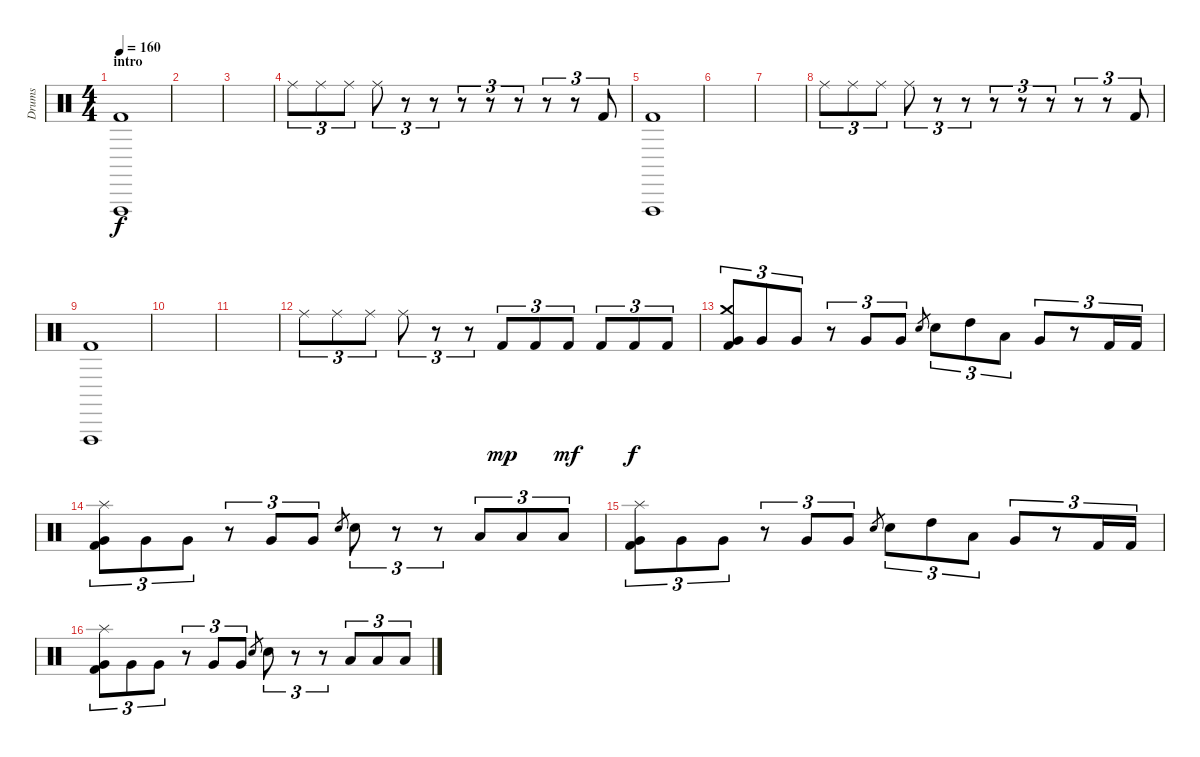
\track ("Drums" "Drums") {instrument percussion}
\staff {score}
\articulation defaults
\ts (4 4)
\section ("" "intro")
\tempo 160
\clef neutral
\ks c
("Vibraslap (hit)" "Kick (hit) 2").1{dy f} |
|
|
"Ride (middle)".8{tu (3 2)} "Ride (middle)".8{tu (3 2)} "Ride (middle)".8{tu (3 2)} "Ride (middle)".8{tu (3 2)} r.8{tu (3 2)} r.8{tu (3 2)} r.8{tu (3 2)} r.8{tu (3 2)} r.8{tu (3 2)} r.8{tu (3 2)} r.8{tu (3 2)} "Kick (hit) 2".8{tu (3 2)} |
("Vibraslap (hit)" "Kick (hit) 2").1 |
|
|
"Ride (middle)".8{tu (3 2)} "Ride (middle)".8{tu (3 2)} "Ride (middle)".8{tu (3 2)} "Ride (middle)".8{tu (3 2)} r.8{tu (3 2)} r.8{tu (3 2)} r.8{tu (3 2)} r.8{tu (3 2)} r.8{tu (3 2)} r.8{tu (3 2)} r.8{tu (3 2)} "Kick (hit) 2".8{tu (3 2)} |
("Vibraslap (hit)" "Kick (hit) 2").1 |
|
|
"Ride (middle)".8{tu (3 2)} "Ride (middle)".8{tu (3 2)} "Ride (middle)".8{tu (3 2)} "Ride (middle)".8{tu (3 2)} r.8{tu (3 2)} r.8{tu (3 2)} "Kick (hit) 2".8{tu (3 2) dy mp} "Kick (hit) 2".8{tu (3 2)} "Kick (hit) 2".8{tu (3 2) dy mf} "Kick (hit) 2".8{tu (3 2)} "Kick (hit) 2".8{tu (3 2) dy f} "Kick (hit) 2".8{tu (3 2)} |
("Crash medium (hit)" "Very Low Tom (hit)" "Kick (hit) 2").8{tu (3 2)} "Very Low Tom (hit)".8{tu (3 2)} "Very Low Tom (hit)".8{tu (3 2)} r.8{tu (3 2)} "Very Low Tom (hit)".8{tu (3 2)} "Very Low Tom (hit)".8{tu (3 2)} "Electric Snare (hit)".8{gr} "Electric Snare (hit)".8{tu (3 2)} "High Tom (hit)".8{tu (3 2)} "Low Tom (hit)".8{tu (3 2)} "Very Low Tom (hit)".8{tu (3 2)} r.8{tu (3 2)} "Kick (hit) 2".16{tu (3 2)} "Kick (hit) 2".16{tu (3 2)} |
("Splash (hit)" "Very Low Tom (hit)" "Kick (hit) 2").8{tu (3 2)} "Very Low Tom (hit)".8{tu (3 2)} "Very Low Tom (hit)".8{tu (3 2)} r.8{tu (3 2)} "Very Low Tom (hit)".8{tu (3 2)} "Very Low Tom (hit)".8{tu (3 2)} "Electric Snare (hit)".8{gr} "Electric Snare (hit)".8{tu (3 2)} r.8{tu (3 2)} r.8{tu (3 2)} "Low Tom (hit)".8{tu (3 2)} "Low Tom (hit)".8{tu (3 2)} "Low Tom (hit)".8{tu (3 2)} |
("Splash (hit)" "Very Low Tom (hit)" "Kick (hit) 2").8{tu (3 2)} "Very Low Tom (hit)".8{tu (3 2)} "Very Low Tom (hit)".8{tu (3 2)} r.8{tu (3 2)} "Very Low Tom (hit)".8{tu (3 2)} "Very Low Tom (hit)".8{tu (3 2)} "Electric Snare (hit)".8{gr} "Electric Snare (hit)".8{tu (3 2)} "High Tom (hit)".8{tu (3 2)} "Low Tom (hit)".8{tu (3 2)} "Very Low Tom (hit)".8{tu (3 2)} r.8{tu (3 2)} "Kick (hit) 2".16{tu (3 2)} "Kick (hit) 2".16{tu (3 2)} |
("Splash (hit)" "Very Low Tom (hit)" "Kick (hit) 2").8{tu (3 2)} "Very Low Tom (hit)".8{tu (3 2)} "Very Low Tom (hit)".8{tu (3 2)} r.8{tu (3 2)} "Very Low Tom (hit)".8{tu (3 2)} "Very Low Tom (hit)".8{tu (3 2)} "Electric Snare (hit)".8{gr} "Electric Snare (hit)".8{tu (3 2)} r.8{tu (3 2)} r.8{tu (3 2)} "Low Tom (hit)".8{tu (3 2)} "Low Tom (hit)".8{tu (3 2)} "Low Tom (hit)".8{tu (3 2)}
